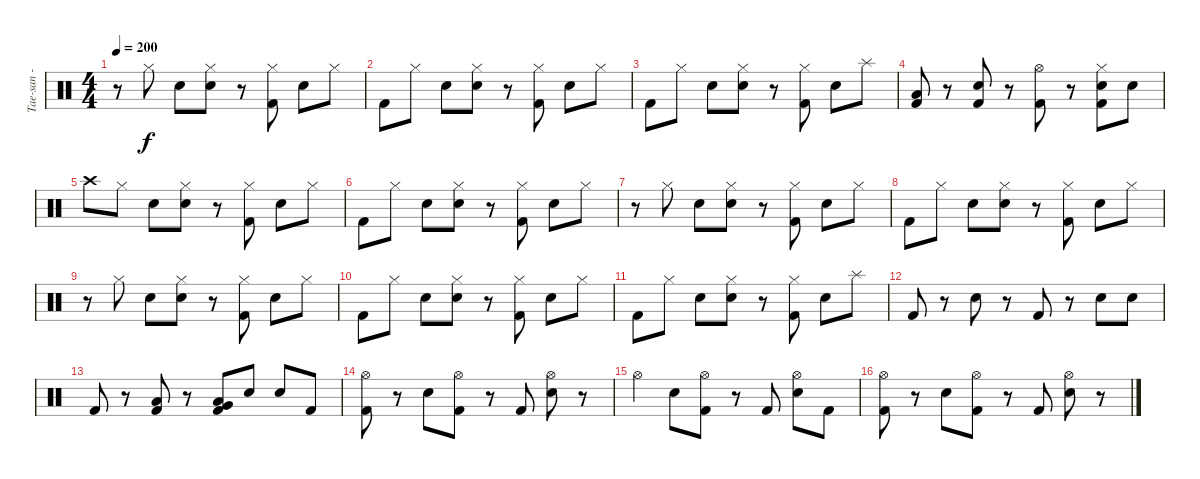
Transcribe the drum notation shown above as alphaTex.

\track ("Tae-san - Drums" "Tae-san - ") {instrument percussion}
\staff {score}
\articulation defaults
\ts (4 4)
\tempo 200
\clef neutral
\ks c
r.8{dy f} "Hi-Hat (closed)".8 "Electric Snare (hit)".8 ("Electric Snare (hit)" "Hi-Hat (closed)").8 r.8 ("Kick (hit) 2" "Hi-Hat (closed)").8 "Electric Snare (hit)".8 "Hi-Hat (closed)".8 |
"Kick (hit) 2".8 "Hi-Hat (closed)".8 "Electric Snare (hit)".8 ("Electric Snare (hit)" "Hi-Hat (closed)").8 r.8 ("Kick (hit) 2" "Hi-Hat (closed)").8 "Electric Snare (hit)".8 "Hi-Hat (closed)".8 |
"Kick (hit) 2".8 "Hi-Hat (closed)".8 "Electric Snare (hit)".8 ("Electric Snare (hit)" "Hi-Hat (closed)").8 r.8 ("Kick (hit) 2" "Hi-Hat (closed)").8 "Electric Snare (hit)".8 "Splash (hit)".8 |
("Kick (hit) 2" "Low Tom (hit)").8 r.8 ("Kick (hit) 2" "Electric Snare (hit)").8 r.8 ("Kick (hit) 2" "Hi-Hat (open)").8 r.8 ("Kick (hit) 2" "Electric Snare (hit)" "Hi-Hat (closed)").8 "Electric Snare (hit)".8 |
"Crash high (hit)".8 "Hi-Hat (closed)".8 "Electric Snare (hit)".8 ("Electric Snare (hit)" "Hi-Hat (closed)").8 r.8 ("Kick (hit) 2" "Hi-Hat (closed)").8 "Electric Snare (hit)".8 "Hi-Hat (closed)".8 |
"Kick (hit) 2".8 "Hi-Hat (closed)".8 "Electric Snare (hit)".8 ("Electric Snare (hit)" "Hi-Hat (closed)").8 r.8 ("Kick (hit) 2" "Hi-Hat (closed)").8 "Electric Snare (hit)".8 "Hi-Hat (closed)".8 |
r.8 "Hi-Hat (closed)".8 "Electric Snare (hit)".8 ("Electric Snare (hit)" "Hi-Hat (closed)").8 r.8 ("Kick (hit) 2" "Hi-Hat (closed)").8 "Electric Snare (hit)".8 "Hi-Hat (closed)".8 |
"Kick (hit) 2".8 "Hi-Hat (closed)".8 "Electric Snare (hit)".8 ("Electric Snare (hit)" "Hi-Hat (closed)").8 r.8 ("Kick (hit) 2" "Hi-Hat (closed)").8 "Electric Snare (hit)".8 "Hi-Hat (closed)".8 |
r.8 "Hi-Hat (closed)".8 "Electric Snare (hit)".8 ("Electric Snare (hit)" "Hi-Hat (closed)").8 r.8 ("Kick (hit) 2" "Hi-Hat (closed)").8 "Electric Snare (hit)".8 "Hi-Hat (closed)".8 |
"Kick (hit) 2".8 "Hi-Hat (closed)".8 "Electric Snare (hit)".8 ("Electric Snare (hit)" "Hi-Hat (closed)").8 r.8 ("Kick (hit) 2" "Hi-Hat (closed)").8 "Electric Snare (hit)".8 "Hi-Hat (closed)".8 |
"Kick (hit) 2".8 "Hi-Hat (closed)".8 "Electric Snare (hit)".8 ("Electric Snare (hit)" "Hi-Hat (closed)").8 r.8 ("Kick (hit) 2" "Hi-Hat (closed)").8 "Electric Snare (hit)".8 "Splash (hit)".8 |
"Kick (hit) 2".8 r.8 "Electric Snare (hit)".8 r.8 "Kick (hit) 2".8 r.8 "Electric Snare (hit)".8 "Electric Snare (hit)".8 |
"Kick (hit) 2".8 r.8 ("Kick (hit) 2" "Low Tom (hit)").8 r.8 ("Kick (hit) 2" "Low Floor Tom (hit)" "Very Low Tom (hit)").8 "Electric Snare (hit)".8 "Electric Snare (hit)".8 "Kick (hit) 2".8 |
("Kick (hit) 2" "Hi-Hat (open)").8 r.8 "Electric Snare (hit)".8 ("Kick (hit) 2" "Hi-Hat (open)").8 r.8 "Kick (hit) 2".8 ("Electric Snare (hit)" "Hi-Hat (open)").8 r.8 |
"Hi-Hat (open)".4 "Electric Snare (hit)".8 ("Kick (hit) 2" "Hi-Hat (open)").8 r.8 "Kick (hit) 2".8 ("Electric Snare (hit)" "Hi-Hat (open)").8 "Kick (hit) 2".8 |
("Kick (hit) 2" "Hi-Hat (open)").8 r.8 "Electric Snare (hit)".8 ("Kick (hit) 2" "Hi-Hat (open)").8 r.8 "Kick (hit) 2".8 ("Electric Snare (hit)" "Hi-Hat (open)").8 r.8
